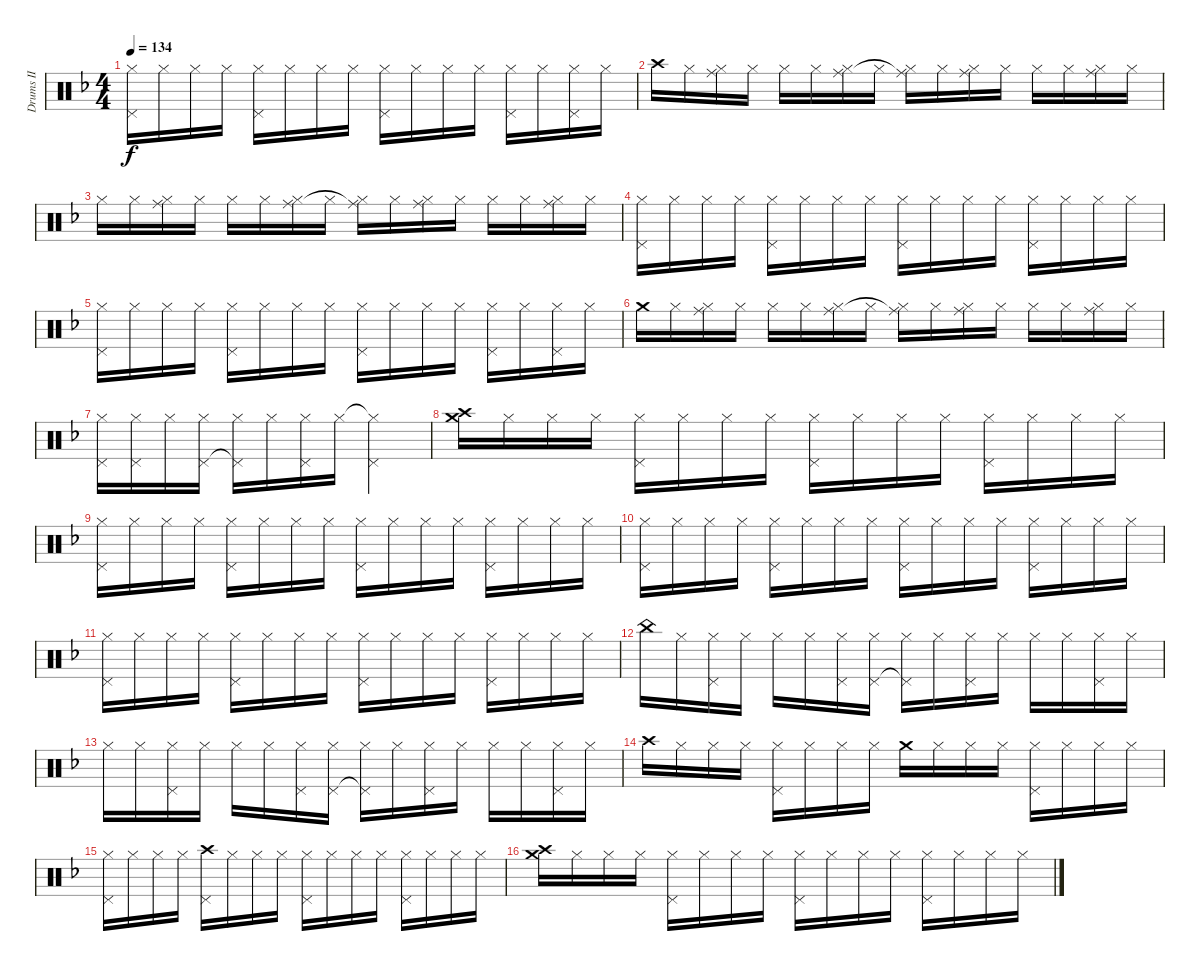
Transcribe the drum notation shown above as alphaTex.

\track ("Drums II" "Drums II") {instrument percussion}
\staff {score}
\articulation defaults
\ts (4 4)
\tempo 134
\clef neutral
\ks f
("Hi-Hat (closed)" "Pedal Hi-Hat (hit)").16{dy f} "Hi-Hat (closed)".16 "Hi-Hat (closed)".16 "Hi-Hat (closed)".16 ("Hi-Hat (closed)" "Pedal Hi-Hat (hit)").16 "Hi-Hat (closed)".16 "Hi-Hat (closed)".16 "Hi-Hat (closed)".16 ("Hi-Hat (closed)" "Pedal Hi-Hat (hit)").16 "Hi-Hat (closed)".16 "Hi-Hat (closed)".16 "Hi-Hat (closed)".16 ("Hi-Hat (closed)" "Pedal Hi-Hat (hit)").16 "Hi-Hat (closed)".16 ("Hi-Hat (closed)" "Pedal Hi-Hat (hit)").16 "Hi-Hat (closed)".16 |
"Crash high (hit)".16 "Hi-Hat (closed)".16 ("Hi-Hat (closed)" "Ride (middle)").16 "Hi-Hat (closed)".16 "Hi-Hat (closed)".16 "Hi-Hat (closed)".16 ("Hi-Hat (closed)" "Ride (middle)").16 "Hi-Hat (closed)".16 ("Hi-Hat (closed)" "Ride (middle)"{t}).16 "Hi-Hat (closed)".16 ("Hi-Hat (closed)" "Ride (middle)").16 "Hi-Hat (closed)".16 "Hi-Hat (closed)".16 "Hi-Hat (closed)".16 ("Hi-Hat (closed)" "Ride (middle)").16 "Hi-Hat (closed)".16 |
"Hi-Hat (closed)".16 "Hi-Hat (closed)".16 ("Hi-Hat (closed)" "Ride (middle)").16 "Hi-Hat (closed)".16 "Hi-Hat (closed)".16 "Hi-Hat (closed)".16 ("Hi-Hat (closed)" "Ride (middle)").16 "Hi-Hat (closed)".16 ("Hi-Hat (closed)" "Ride (middle)"{t}).16 "Hi-Hat (closed)".16 ("Hi-Hat (closed)" "Ride (middle)").16 "Hi-Hat (closed)".16 "Hi-Hat (closed)".16 "Hi-Hat (closed)".16 ("Hi-Hat (closed)" "Ride (middle)").16 "Hi-Hat (closed)".16 |
("Hi-Hat (closed)" "Pedal Hi-Hat (hit)").16 "Hi-Hat (closed)".16 "Hi-Hat (closed)".16 "Hi-Hat (closed)".16 ("Hi-Hat (closed)" "Pedal Hi-Hat (hit)").16 "Hi-Hat (closed)".16 "Hi-Hat (closed)".16 "Hi-Hat (closed)".16 ("Hi-Hat (closed)" "Pedal Hi-Hat (hit)").16 "Hi-Hat (closed)".16 "Hi-Hat (closed)".16 "Hi-Hat (closed)".16 ("Hi-Hat (closed)" "Pedal Hi-Hat (hit)").16 "Hi-Hat (closed)".16 "Hi-Hat (closed)".16 "Hi-Hat (closed)".16 |
("Hi-Hat (closed)" "Pedal Hi-Hat (hit)").16 "Hi-Hat (closed)".16 "Hi-Hat (closed)".16 "Hi-Hat (closed)".16 ("Hi-Hat (closed)" "Pedal Hi-Hat (hit)").16 "Hi-Hat (closed)".16 "Hi-Hat (closed)".16 "Hi-Hat (closed)".16 ("Hi-Hat (closed)" "Pedal Hi-Hat (hit)").16 "Hi-Hat (closed)".16 "Hi-Hat (closed)".16 "Hi-Hat (closed)".16 ("Hi-Hat (closed)" "Pedal Hi-Hat (hit)").16 "Hi-Hat (closed)".16 ("Hi-Hat (closed)" "Pedal Hi-Hat (hit)").16 "Hi-Hat (closed)".16 |
"Crash medium (hit)".16 "Hi-Hat (closed)".16 ("Hi-Hat (closed)" "Ride (middle)").16 "Hi-Hat (closed)".16 "Hi-Hat (closed)".16 "Hi-Hat (closed)".16 ("Hi-Hat (closed)" "Ride (middle)").16 "Hi-Hat (closed)".16 ("Hi-Hat (closed)" "Ride (middle)"{t}).16 "Hi-Hat (closed)".16 ("Hi-Hat (closed)" "Ride (middle)").16 "Hi-Hat (closed)".16 "Hi-Hat (closed)".16 "Hi-Hat (closed)".16 ("Hi-Hat (closed)" "Ride (middle)").16 "Hi-Hat (closed)".16 |
("Hi-Hat (closed)" "Pedal Hi-Hat (hit)").16 ("Hi-Hat (closed)" "Pedal Hi-Hat (hit)").16 "Hi-Hat (closed)".16 ("Hi-Hat (closed)" "Pedal Hi-Hat (hit)").16 ("Hi-Hat (closed)" "Pedal Hi-Hat (hit)"{t}).16 "Hi-Hat (closed)".16 ("Hi-Hat (closed)" "Pedal Hi-Hat (hit)").16 "Hi-Hat (closed)".16 ("Hi-Hat (closed)"{t} "Pedal Hi-Hat (hit)").2 |
("Crash medium (hit)" "Crash high (hit)").16 "Hi-Hat (closed)".16 "Hi-Hat (closed)".16 "Hi-Hat (closed)".16 ("Hi-Hat (closed)" "Pedal Hi-Hat (hit)").16 "Hi-Hat (closed)".16 "Hi-Hat (closed)".16 "Hi-Hat (closed)".16 ("Hi-Hat (closed)" "Pedal Hi-Hat (hit)").16 "Hi-Hat (closed)".16 "Hi-Hat (closed)".16 "Hi-Hat (closed)".16 ("Hi-Hat (closed)" "Pedal Hi-Hat (hit)").16 "Hi-Hat (closed)".16 "Hi-Hat (closed)".16 "Hi-Hat (closed)".16 |
("Hi-Hat (closed)" "Pedal Hi-Hat (hit)").16 "Hi-Hat (closed)".16 "Hi-Hat (closed)".16 "Hi-Hat (closed)".16 ("Hi-Hat (closed)" "Pedal Hi-Hat (hit)").16 "Hi-Hat (closed)".16 "Hi-Hat (closed)".16 "Hi-Hat (closed)".16 ("Hi-Hat (closed)" "Pedal Hi-Hat (hit)").16 "Hi-Hat (closed)".16 "Hi-Hat (closed)".16 "Hi-Hat (closed)".16 ("Hi-Hat (closed)" "Pedal Hi-Hat (hit)").16 "Hi-Hat (closed)".16 "Hi-Hat (closed)".16 "Hi-Hat (closed)".16 |
("Hi-Hat (closed)" "Pedal Hi-Hat (hit)").16 "Hi-Hat (closed)".16 "Hi-Hat (closed)".16 "Hi-Hat (closed)".16 ("Hi-Hat (closed)" "Pedal Hi-Hat (hit)").16 "Hi-Hat (closed)".16 "Hi-Hat (closed)".16 "Hi-Hat (closed)".16 ("Hi-Hat (closed)" "Pedal Hi-Hat (hit)").16 "Hi-Hat (closed)".16 "Hi-Hat (closed)".16 "Hi-Hat (closed)".16 ("Hi-Hat (closed)" "Pedal Hi-Hat (hit)").16 "Hi-Hat (closed)".16 "Hi-Hat (closed)".16 "Hi-Hat (closed)".16 |
("Hi-Hat (closed)" "Pedal Hi-Hat (hit)").16 "Hi-Hat (closed)".16 "Hi-Hat (closed)".16 "Hi-Hat (closed)".16 ("Hi-Hat (closed)" "Pedal Hi-Hat (hit)").16 "Hi-Hat (closed)".16 "Hi-Hat (closed)".16 "Hi-Hat (closed)".16 ("Hi-Hat (closed)" "Pedal Hi-Hat (hit)").16 "Hi-Hat (closed)".16 "Hi-Hat (closed)".16 "Hi-Hat (closed)".16 ("Hi-Hat (closed)" "Pedal Hi-Hat (hit)").16 "Hi-Hat (closed)".16 "Hi-Hat (closed)".16 "Hi-Hat (closed)".16 |
"China (hit)".16 "Hi-Hat (closed)".16 ("Hi-Hat (closed)" "Pedal Hi-Hat (hit)").16 "Hi-Hat (closed)".16 "Hi-Hat (closed)".16 "Hi-Hat (closed)".16 ("Hi-Hat (closed)" "Pedal Hi-Hat (hit)").16 ("Hi-Hat (closed)" "Pedal Hi-Hat (hit)").16 ("Hi-Hat (closed)" "Pedal Hi-Hat (hit)"{t}).16 "Hi-Hat (closed)".16 ("Hi-Hat (closed)" "Pedal Hi-Hat (hit)").16 "Hi-Hat (closed)".16 "Hi-Hat (closed)".16 "Hi-Hat (closed)".16 ("Hi-Hat (closed)" "Pedal Hi-Hat (hit)").16 "Hi-Hat (closed)".16 |
"Hi-Hat (closed)".16 "Hi-Hat (closed)".16 ("Hi-Hat (closed)" "Pedal Hi-Hat (hit)").16 "Hi-Hat (closed)".16 "Hi-Hat (closed)".16 "Hi-Hat (closed)".16 ("Hi-Hat (closed)" "Pedal Hi-Hat (hit)").16 ("Hi-Hat (closed)" "Pedal Hi-Hat (hit)").16 ("Hi-Hat (closed)" "Pedal Hi-Hat (hit)"{t}).16 "Hi-Hat (closed)".16 ("Hi-Hat (closed)" "Pedal Hi-Hat (hit)").16 "Hi-Hat (closed)".16 "Hi-Hat (closed)".16 "Hi-Hat (closed)".16 ("Hi-Hat (closed)" "Pedal Hi-Hat (hit)").16 "Hi-Hat (closed)".16 |
"Crash high (hit)".16 "Hi-Hat (closed)".16 "Hi-Hat (closed)".16 "Hi-Hat (closed)".16 ("Hi-Hat (closed)" "Pedal Hi-Hat (hit)").16 "Hi-Hat (closed)".16 "Hi-Hat (closed)".16 "Hi-Hat (closed)".16 "Crash medium (hit)".16 "Hi-Hat (closed)".16 "Hi-Hat (closed)".16 "Hi-Hat (closed)".16 ("Hi-Hat (closed)" "Pedal Hi-Hat (hit)").16 "Hi-Hat (closed)".16 "Hi-Hat (closed)".16 "Hi-Hat (closed)".16 |
("Hi-Hat (closed)" "Pedal Hi-Hat (hit)").16 "Hi-Hat (closed)".16 "Hi-Hat (closed)".16 "Hi-Hat (closed)".16 ("Crash high (hit)" "Pedal Hi-Hat (hit)").16 "Hi-Hat (closed)".16 "Hi-Hat (closed)".16 "Hi-Hat (closed)".16 ("Hi-Hat (closed)" "Pedal Hi-Hat (hit)").16 "Hi-Hat (closed)".16 "Hi-Hat (closed)".16 "Hi-Hat (closed)".16 ("Hi-Hat (closed)" "Pedal Hi-Hat (hit)").16 "Hi-Hat (closed)".16 "Hi-Hat (closed)".16 "Hi-Hat (closed)".16 |
("Crash medium (hit)" "Crash high (hit)").16 "Hi-Hat (closed)".16 "Hi-Hat (closed)".16 "Hi-Hat (closed)".16 ("Hi-Hat (closed)" "Pedal Hi-Hat (hit)").16 "Hi-Hat (closed)".16 "Hi-Hat (closed)".16 "Hi-Hat (closed)".16 ("Hi-Hat (closed)" "Pedal Hi-Hat (hit)").16 "Hi-Hat (closed)".16 "Hi-Hat (closed)".16 "Hi-Hat (closed)".16 ("Hi-Hat (closed)" "Pedal Hi-Hat (hit)").16 "Hi-Hat (closed)".16 "Hi-Hat (closed)".16 "Hi-Hat (closed)".16
